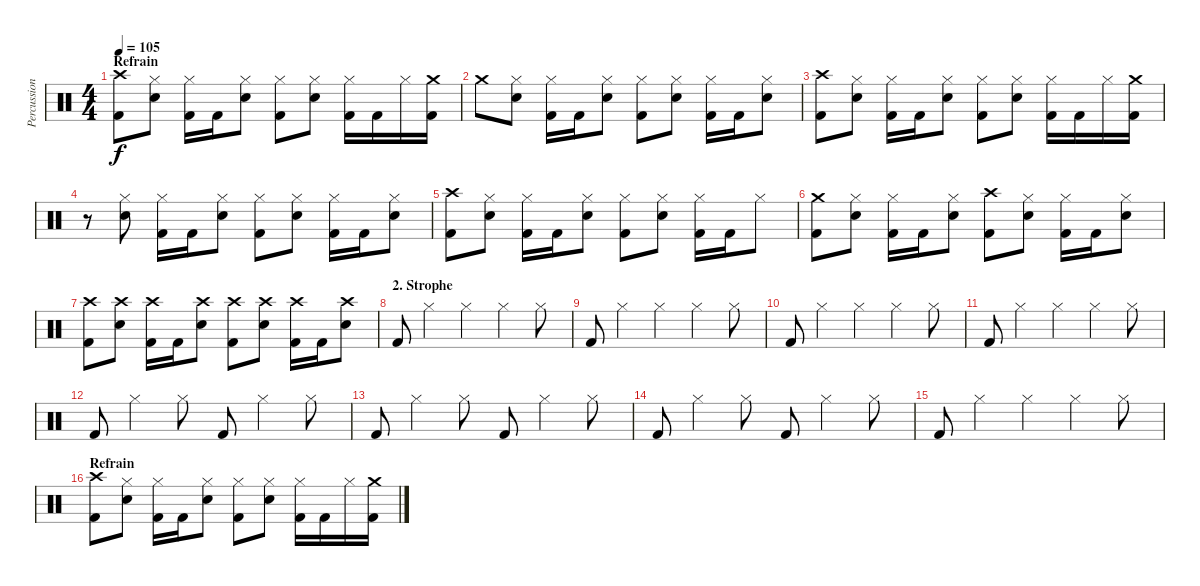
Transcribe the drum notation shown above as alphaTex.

\track ("Percussion" "Percussion") {instrument percussion}
\staff {score}
\articulation defaults
\ts (4 4)
\section ("" "Refrain")
\tempo 105
\clef neutral
\ks c
("Crash high (hit)" "Kick (hit) 2").8{dy f} ("Hi-Hat (closed)" "Electric Snare (hit)").8 ("Hi-Hat (closed)" "Kick (hit) 2").16 "Kick (hit) 2".16 ("Hi-Hat (closed)" "Electric Snare (hit)").8 ("Hi-Hat (closed)" "Kick (hit) 2").8 ("Hi-Hat (closed)" "Electric Snare (hit)").8 ("Hi-Hat (closed)" "Kick (hit) 2").16 "Kick (hit) 2".16 "Hi-Hat (closed)".16 ("Crash medium (hit)" "Kick (hit) 2").16 |
"Crash medium (hit)".8 ("Hi-Hat (closed)" "Electric Snare (hit)").8 ("Hi-Hat (closed)" "Kick (hit) 2").16 "Kick (hit) 2".16 ("Hi-Hat (closed)" "Electric Snare (hit)").8 ("Hi-Hat (closed)" "Kick (hit) 2").8 ("Hi-Hat (closed)" "Electric Snare (hit)").8 ("Hi-Hat (closed)" "Kick (hit) 2").16 "Kick (hit) 2".16 ("Hi-Hat (closed)" "Electric Snare (hit)").8 |
("Crash high (hit)" "Kick (hit) 2").8 ("Hi-Hat (closed)" "Electric Snare (hit)").8 ("Hi-Hat (closed)" "Kick (hit) 2").16 "Kick (hit) 2".16 ("Hi-Hat (closed)" "Electric Snare (hit)").8 ("Hi-Hat (closed)" "Kick (hit) 2").8 ("Hi-Hat (closed)" "Electric Snare (hit)").8 ("Hi-Hat (closed)" "Kick (hit) 2").16 "Kick (hit) 2".16 "Hi-Hat (closed)".16 ("Crash medium (hit)" "Kick (hit) 2").16 |
r.8 ("Hi-Hat (closed)" "Electric Snare (hit)").8 ("Hi-Hat (closed)" "Kick (hit) 2").16 "Kick (hit) 2".16 ("Hi-Hat (closed)" "Electric Snare (hit)").8 ("Hi-Hat (closed)" "Kick (hit) 2").8 ("Hi-Hat (closed)" "Electric Snare (hit)").8 ("Hi-Hat (closed)" "Kick (hit) 2").16 "Kick (hit) 2".16 ("Hi-Hat (closed)" "Electric Snare (hit)").8 |
("Crash high (hit)" "Kick (hit) 2").8 ("Hi-Hat (closed)" "Electric Snare (hit)").8 ("Hi-Hat (closed)" "Kick (hit) 2").16 "Kick (hit) 2".16 ("Hi-Hat (closed)" "Electric Snare (hit)").8 ("Hi-Hat (closed)" "Kick (hit) 2").8 ("Hi-Hat (closed)" "Electric Snare (hit)").8 ("Hi-Hat (closed)" "Kick (hit) 2").16 "Kick (hit) 2".16 "Hi-Hat (closed)".8 |
("Crash medium (hit)" "Kick (hit) 2").8 ("Hi-Hat (closed)" "Electric Snare (hit)").8 ("Hi-Hat (closed)" "Kick (hit) 2").16 "Kick (hit) 2".16 ("Hi-Hat (closed)" "Electric Snare (hit)").8 ("Crash high (hit)" "Kick (hit) 2").8 ("Hi-Hat (closed)" "Electric Snare (hit)").8 ("Hi-Hat (closed)" "Kick (hit) 2").16 "Kick (hit) 2".16 ("Hi-Hat (closed)" "Electric Snare (hit)").8 |
("Crash high (hit)" "Kick (hit) 2").8 ("Crash high (hit)" "Electric Snare (hit)").8 ("Crash high (hit)" "Kick (hit) 2").16 "Kick (hit) 2".16 ("Crash high (hit)" "Electric Snare (hit)").8 ("Crash high (hit)" "Kick (hit) 2").8 ("Crash high (hit)" "Electric Snare (hit)").8 ("Crash high (hit)" "Kick (hit) 2").16 "Kick (hit) 2".16 ("Crash high (hit)" "Electric Snare (hit)").8 |
\section ("" "2. Strophe")
"Kick (hit) 2".8 "Hi-Hat (closed)".4 "Hi-Hat (closed)".4 "Hi-Hat (closed)".4 "Hi-Hat (closed)".8 |
"Kick (hit) 2".8 "Hi-Hat (closed)".4 "Hi-Hat (closed)".4 "Hi-Hat (closed)".4 "Hi-Hat (closed)".8 |
"Kick (hit) 2".8 "Hi-Hat (closed)".4 "Hi-Hat (closed)".4 "Hi-Hat (closed)".4 "Hi-Hat (closed)".8 |
"Kick (hit) 2".8 "Hi-Hat (closed)".4 "Hi-Hat (closed)".4 "Hi-Hat (closed)".4 "Hi-Hat (closed)".8 |
"Kick (hit) 2".8 "Hi-Hat (closed)".4 "Hi-Hat (closed)".8 "Kick (hit) 2".8 "Hi-Hat (closed)".4 "Hi-Hat (closed)".8 |
"Kick (hit) 2".8 "Hi-Hat (closed)".4 "Hi-Hat (closed)".8 "Kick (hit) 2".8 "Hi-Hat (closed)".4 "Hi-Hat (closed)".8 |
"Kick (hit) 2".8 "Hi-Hat (closed)".4 "Hi-Hat (closed)".8 "Kick (hit) 2".8 "Hi-Hat (closed)".4 "Hi-Hat (closed)".8 |
"Kick (hit) 2".8 "Hi-Hat (closed)".4 "Hi-Hat (closed)".4 "Hi-Hat (closed)".4 "Hi-Hat (closed)".8 |
\section ("" "Refrain")
("Crash high (hit)" "Kick (hit) 2").8 ("Hi-Hat (closed)" "Electric Snare (hit)").8 ("Hi-Hat (closed)" "Kick (hit) 2").16 "Kick (hit) 2".16 ("Hi-Hat (closed)" "Electric Snare (hit)").8 ("Hi-Hat (closed)" "Kick (hit) 2").8 ("Hi-Hat (closed)" "Electric Snare (hit)").8 ("Hi-Hat (closed)" "Kick (hit) 2").16 "Kick (hit) 2".16 "Hi-Hat (closed)".16 ("Crash medium (hit)" "Kick (hit) 2").16
